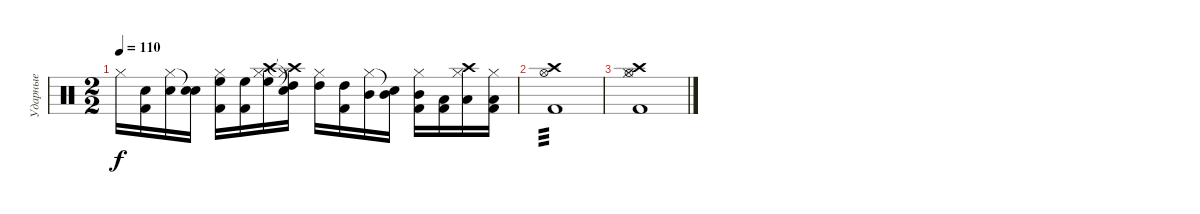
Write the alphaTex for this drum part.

\track ("Ударные" "Ударные") {instrument percussion}
\staff {score}
\articulation defaults
\ts (2 2)
\tempo 110
\clef neutral
\ks c "Hi-Hat (closed)".16{dy f}
("Snare (hit) 2" "Kick (hit) 2").16 ("Hi-Hat (closed)" "Snare (hit) 2").16 ("Snare (hit) 2"{t} "Snare (hit) 2").16 ("Hi-Hat (closed)" "High Floor Tom (hit)" "Kick (hit) 2").16 ("High Floor Tom (hit)" "Kick (hit) 2").16 ("Hi-Hat (closed)" "Crash high (hit)" "High Floor Tom (hit)").16 ("Hi-Hat (closed)"{t} "Snare (hit) 2"{t} "Crash high (hit)"{t} "High Tom (hit)").16 ("Hi-Hat (closed)" "High Tom (hit)").16 ("High Tom (hit)" "Kick (hit) 2").16 ("Hi-Hat (closed)" "Mid Tom (hit)").16 ("Snare (hit) 2"{t} "Mid Tom (hit)").16 ("Hi-Hat (closed)" "Mid Tom (hit)" "Kick (hit) 2").16 ("Low Tom (hit)" "Kick (hit) 2").16 ("Hi-Hat (closed)" "Crash high (hit)" "Low Tom (hit)").16 ("Hi-Hat (closed)" "Low Tom (hit)" "Kick (hit) 2").16 |
("Crash high (hit)" "Hi-Hat (open)" "Kick (hit) 2").1{tp 3} |
("Hi-Hat (closed)" "Crash high (hit)" "Hi-Hat (open)" "Kick (hit) 2").1
